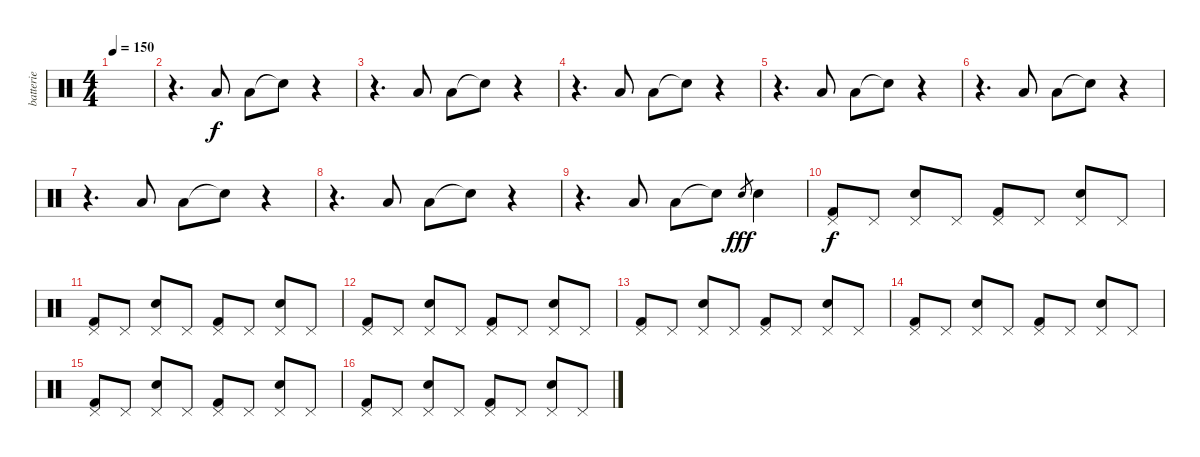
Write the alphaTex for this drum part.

\track ("batterie" "batterie") {instrument percussion}
\staff {score}
\articulation defaults
\ts (4 4)
\tempo 150
\clef neutral
\ks c
|
r.4{d} "Low Floor Tom (hit)".8 "Low Floor Tom (hit)".8 "Snare (hit)"{t}.8 r.4 |
r.4{d} "Low Floor Tom (hit)".8 "Low Floor Tom (hit)".8 "Snare (hit)"{t}.8 r.4 |
r.4{d} "Low Floor Tom (hit)".8 "Low Floor Tom (hit)".8 "Snare (hit)"{t}.8 r.4 |
r.4{d} "Low Floor Tom (hit)".8 "Low Floor Tom (hit)".8 "Snare (hit)"{t}.8 r.4 |
r.4{d} "Low Floor Tom (hit)".8 "Low Floor Tom (hit)".8 "Snare (hit)"{t}.8 r.4 |
r.4{d} "Low Floor Tom (hit)".8 "Low Floor Tom (hit)".8 "Snare (hit)"{t}.8 r.4 |
r.4{d} "Low Floor Tom (hit)".8 "Low Floor Tom (hit)".8 "Snare (hit)"{t}.8 r.4 |
r.4{d} "Low Floor Tom (hit)".8 "Low Floor Tom (hit)".8 "Snare (hit)"{t}.8 "Snare (hit) 2".8{gr dy fff} "Snare (hit) 2".4 |
("Pedal Hi-Hat (hit)" "Kick (hit) 2").8{dy f} "Pedal Hi-Hat (hit)".8 ("Pedal Hi-Hat (hit)" "Snare (hit) 2").8 "Pedal Hi-Hat (hit)".8 ("Pedal Hi-Hat (hit)" "Kick (hit) 2").8 "Pedal Hi-Hat (hit)".8 ("Pedal Hi-Hat (hit)" "Snare (hit) 2").8 "Pedal Hi-Hat (hit)".8 |
("Pedal Hi-Hat (hit)" "Kick (hit) 2").8 "Pedal Hi-Hat (hit)".8 ("Pedal Hi-Hat (hit)" "Snare (hit) 2").8 "Pedal Hi-Hat (hit)".8 ("Pedal Hi-Hat (hit)" "Kick (hit) 2").8 "Pedal Hi-Hat (hit)".8 ("Pedal Hi-Hat (hit)" "Snare (hit) 2").8 "Pedal Hi-Hat (hit)".8 |
("Pedal Hi-Hat (hit)" "Kick (hit) 2").8 "Pedal Hi-Hat (hit)".8 ("Pedal Hi-Hat (hit)" "Snare (hit) 2").8 "Pedal Hi-Hat (hit)".8 ("Pedal Hi-Hat (hit)" "Kick (hit) 2").8 "Pedal Hi-Hat (hit)".8 ("Pedal Hi-Hat (hit)" "Snare (hit) 2").8 "Pedal Hi-Hat (hit)".8 |
("Pedal Hi-Hat (hit)" "Kick (hit) 2").8 "Pedal Hi-Hat (hit)".8 ("Pedal Hi-Hat (hit)" "Snare (hit) 2").8 "Pedal Hi-Hat (hit)".8 ("Pedal Hi-Hat (hit)" "Kick (hit) 2").8 "Pedal Hi-Hat (hit)".8 ("Pedal Hi-Hat (hit)" "Snare (hit) 2").8 "Pedal Hi-Hat (hit)".8 |
("Pedal Hi-Hat (hit)" "Kick (hit) 2").8 "Pedal Hi-Hat (hit)".8 ("Pedal Hi-Hat (hit)" "Snare (hit) 2").8 "Pedal Hi-Hat (hit)".8 ("Pedal Hi-Hat (hit)" "Kick (hit) 2").8 "Pedal Hi-Hat (hit)".8 ("Pedal Hi-Hat (hit)" "Snare (hit) 2").8 "Pedal Hi-Hat (hit)".8 |
("Pedal Hi-Hat (hit)" "Kick (hit) 2").8 "Pedal Hi-Hat (hit)".8 ("Pedal Hi-Hat (hit)" "Snare (hit) 2").8 "Pedal Hi-Hat (hit)".8 ("Pedal Hi-Hat (hit)" "Kick (hit) 2").8 "Pedal Hi-Hat (hit)".8 ("Pedal Hi-Hat (hit)" "Snare (hit) 2").8 "Pedal Hi-Hat (hit)".8 |
("Pedal Hi-Hat (hit)" "Kick (hit) 2").8 "Pedal Hi-Hat (hit)".8 ("Pedal Hi-Hat (hit)" "Snare (hit) 2").8 "Pedal Hi-Hat (hit)".8 ("Pedal Hi-Hat (hit)" "Kick (hit) 2").8 "Pedal Hi-Hat (hit)".8 ("Pedal Hi-Hat (hit)" "Snare (hit) 2").8 "Pedal Hi-Hat (hit)".8
